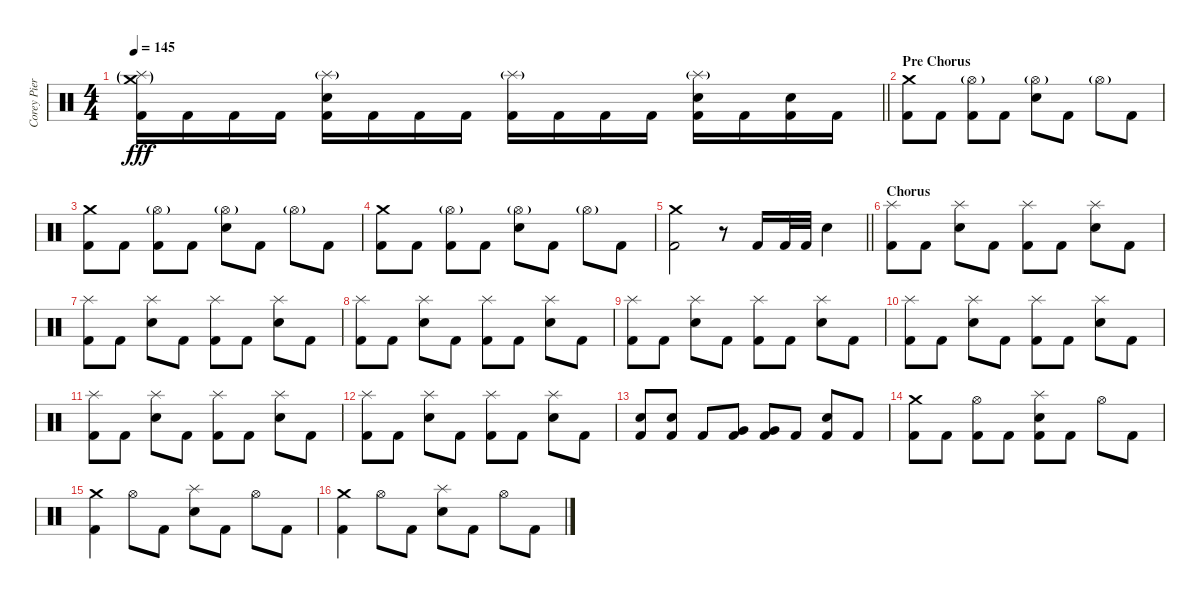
\track ("Corey Pierce" "Corey Pier") {instrument percussion}
\staff {score}
\articulation defaults
\ts (4 4)
\tempo 145
\clef neutral
\barLineRight lightlight
\ks c
("Splash (hit)"{g} "Crash medium (hit)"{g} "Kick (hit) 2").16{dy fff} "Kick (hit) 2".16 "Kick (hit) 2".16 "Kick (hit) 2".16 ("Splash (hit)"{g} "Electric Snare (hit)" "Kick (hit) 2").16 "Kick (hit) 2".16 "Kick (hit) 2".16 "Kick (hit) 2".16 ("Splash (hit)"{g} "Kick (hit) 2").16 "Kick (hit) 2".16 "Kick (hit) 2".16 "Kick (hit) 2".16 ("Splash (hit)"{g} "Electric Snare (hit)" "Kick (hit) 2").16 "Kick (hit) 2".16 ("Electric Snare (hit)" "Kick (hit) 2").16 "Kick (hit) 2".16 |
\section ("" "Pre Chorus")
("Crash medium (hit)" "Kick (hit) 2").8 "Kick (hit) 2".8 ("Hi-Hat (open)"{g} "Kick (hit) 2").8 "Kick (hit) 2".8 ("Hi-Hat (open)"{g} "Electric Snare (hit)").8 "Kick (hit) 2".8 "Hi-Hat (open)"{g}.8 "Kick (hit) 2".8 |
("Crash medium (hit)" "Kick (hit) 2").8 "Kick (hit) 2".8 ("Hi-Hat (open)"{g} "Kick (hit) 2").8 "Kick (hit) 2".8 ("Hi-Hat (open)"{g} "Electric Snare (hit)").8 "Kick (hit) 2".8 "Hi-Hat (open)"{g}.8 "Kick (hit) 2".8 |
("Crash medium (hit)" "Kick (hit) 2").8 "Kick (hit) 2".8 ("Hi-Hat (open)"{g} "Kick (hit) 2").8 "Kick (hit) 2".8 ("Hi-Hat (open)"{g} "Electric Snare (hit)").8 "Kick (hit) 2".8 "Hi-Hat (open)"{g}.8 "Kick (hit) 2".8 |
\barLineRight lightlight
("Crash medium (hit)" "Kick (hit) 2").2 r.8 "Kick (hit) 2".16 "Kick (hit) 2".32 "Kick (hit) 2".32 "Electric Snare (hit)".4 |
\section ("" "Chorus")
("Splash (hit)" "Kick (hit) 2").8 "Kick (hit) 2".8 ("Splash (hit)" "Electric Snare (hit)").8 "Kick (hit) 2".8 ("Splash (hit)" "Kick (hit) 2").8 "Kick (hit) 2".8 ("Splash (hit)" "Electric Snare (hit)").8 "Kick (hit) 2".8 |
("Splash (hit)" "Kick (hit) 2").8 "Kick (hit) 2".8 ("Splash (hit)" "Electric Snare (hit)").8 "Kick (hit) 2".8 ("Splash (hit)" "Kick (hit) 2").8 "Kick (hit) 2".8 ("Splash (hit)" "Electric Snare (hit)").8 "Kick (hit) 2".8 |
("Splash (hit)" "Kick (hit) 2").8 "Kick (hit) 2".8 ("Splash (hit)" "Electric Snare (hit)").8 "Kick (hit) 2".8 ("Splash (hit)" "Kick (hit) 2").8 "Kick (hit) 2".8 ("Splash (hit)" "Electric Snare (hit)").8 "Kick (hit) 2".8 |
("Splash (hit)" "Kick (hit) 2").8 "Kick (hit) 2".8 ("Splash (hit)" "Electric Snare (hit)").8 "Kick (hit) 2".8 ("Splash (hit)" "Kick (hit) 2").8 "Kick (hit) 2".8 ("Splash (hit)" "Electric Snare (hit)").8 "Kick (hit) 2".8 |
("Splash (hit)" "Kick (hit) 2").8 "Kick (hit) 2".8 ("Splash (hit)" "Electric Snare (hit)").8 "Kick (hit) 2".8 ("Splash (hit)" "Kick (hit) 2").8 "Kick (hit) 2".8 ("Splash (hit)" "Electric Snare (hit)").8 "Kick (hit) 2".8 |
("Splash (hit)" "Kick (hit) 2").8 "Kick (hit) 2".8 ("Splash (hit)" "Electric Snare (hit)").8 "Kick (hit) 2".8 ("Splash (hit)" "Kick (hit) 2").8 "Kick (hit) 2".8 ("Splash (hit)" "Electric Snare (hit)").8 "Kick (hit) 2".8 |
("Splash (hit)" "Kick (hit) 2").8 "Kick (hit) 2".8 ("Splash (hit)" "Electric Snare (hit)").8 "Kick (hit) 2".8 ("Splash (hit)" "Kick (hit) 2").8 "Kick (hit) 2".8 ("Splash (hit)" "Electric Snare (hit)").8 "Kick (hit) 2".8 |
("Electric Snare (hit)" "Kick (hit) 2").8 ("Electric Snare (hit)" "Kick (hit) 2").8 "Kick (hit) 2".8 ("Very Low Tom (hit)" "Kick (hit) 2").8 ("Very Low Tom (hit)" "Kick (hit) 2").8 "Kick (hit) 2".8 ("Electric Snare (hit)" "Kick (hit) 2").8 "Kick (hit) 2".8 |
("Crash medium (hit)" "Kick (hit) 2").8 "Kick (hit) 2".8 ("Hi-Hat (open)" "Kick (hit) 2").8 "Kick (hit) 2".8 ("Splash (hit)" "Electric Snare (hit)" "Kick (hit) 2").8 "Kick (hit) 2".8 "Hi-Hat (open)".8 "Kick (hit) 2".8 |
("Crash medium (hit)" "Kick (hit) 2").4 "Hi-Hat (open)".8 "Kick (hit) 2".8 ("Splash (hit)" "Electric Snare (hit)").8 "Kick (hit) 2".8 "Hi-Hat (open)".8 "Kick (hit) 2".8 |
("Crash medium (hit)" "Kick (hit) 2").4 "Hi-Hat (open)".8 "Kick (hit) 2".8 ("Splash (hit)" "Electric Snare (hit)").8 "Kick (hit) 2".8 "Hi-Hat (open)".8 "Kick (hit) 2".8
